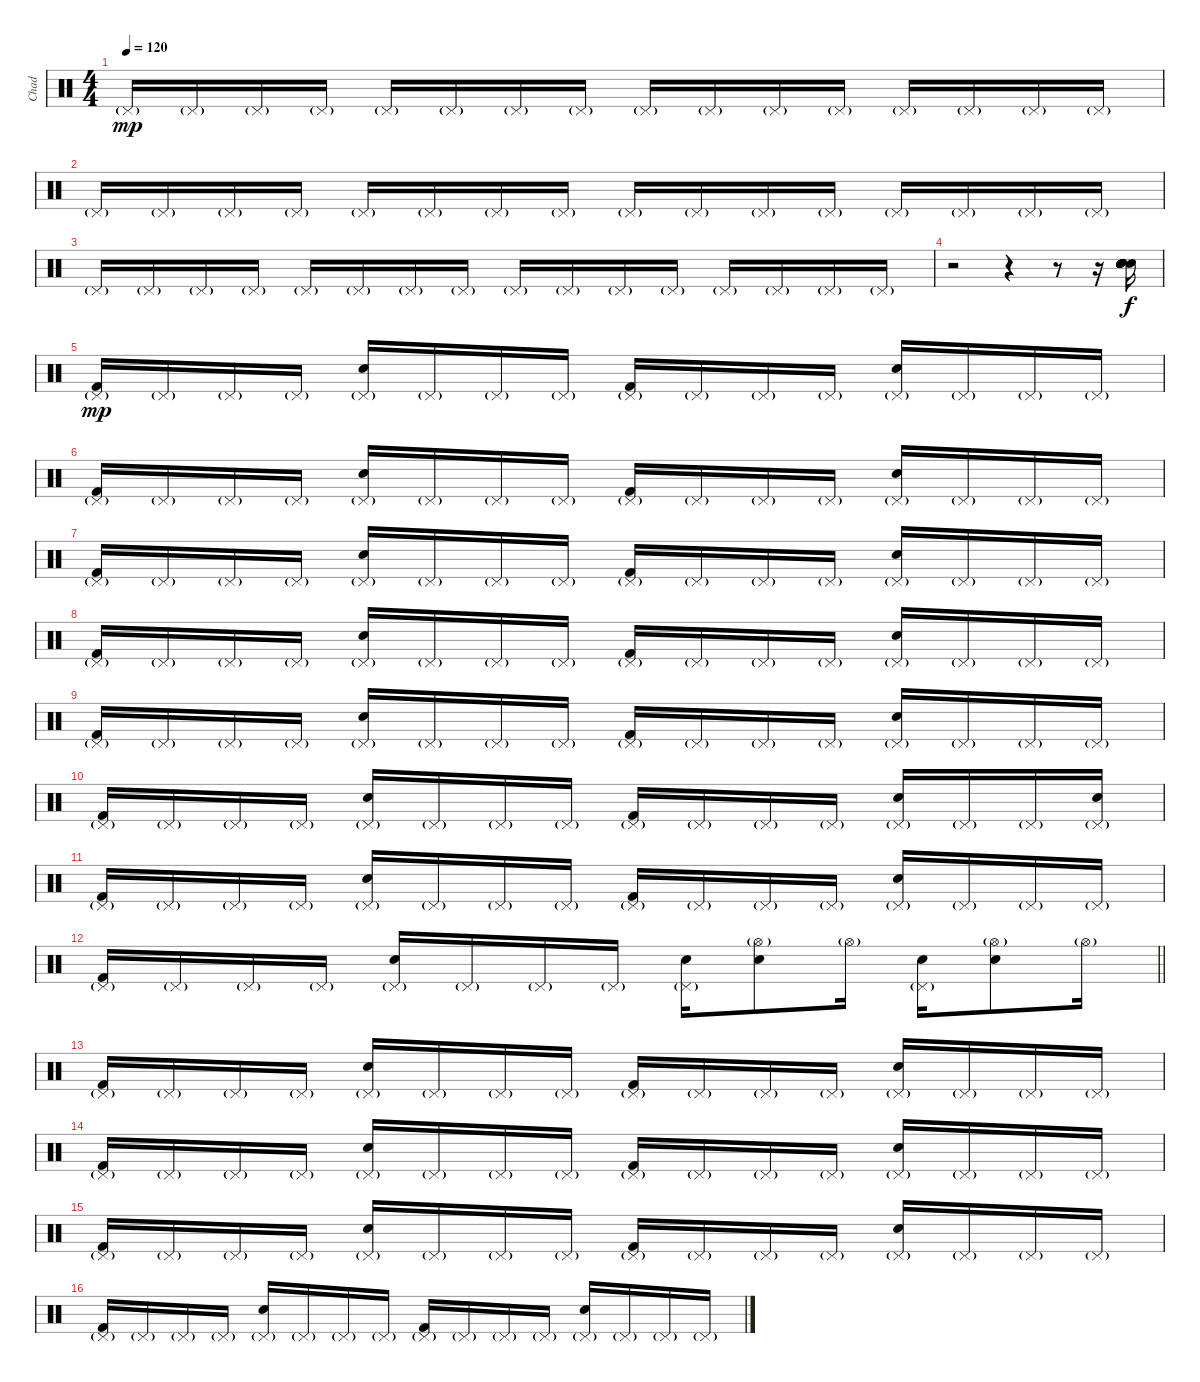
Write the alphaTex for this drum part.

\track ("Chad" "Chad") {instrument percussion}
\staff {score}
\articulation defaults
\ts (4 4)
\tempo 120
\clef neutral
\ks c "Pedal Hi-Hat (hit)"{g}.16{dy mp} "Pedal Hi-Hat (hit)"{g}.16 "Pedal Hi-Hat (hit)"{g}.16 "Pedal Hi-Hat (hit)"{g}.16 "Pedal Hi-Hat (hit)"{g}.16 "Pedal Hi-Hat (hit)"{g}.16 "Pedal Hi-Hat (hit)"{g}.16 "Pedal Hi-Hat (hit)"{g}.16 "Pedal Hi-Hat (hit)"{g}.16 "Pedal Hi-Hat (hit)"{g}.16 "Pedal Hi-Hat (hit)"{g}.16 "Pedal Hi-Hat (hit)"{g}.16 "Pedal Hi-Hat (hit)"{g}.16 "Pedal Hi-Hat (hit)"{g}.16 "Pedal Hi-Hat (hit)"{g}.16 "Pedal Hi-Hat (hit)"{g}.16
|
"Pedal Hi-Hat (hit)"{g}.16 "Pedal Hi-Hat (hit)"{g}.16 "Pedal Hi-Hat (hit)"{g}.16 "Pedal Hi-Hat (hit)"{g}.16 "Pedal Hi-Hat (hit)"{g}.16 "Pedal Hi-Hat (hit)"{g}.16 "Pedal Hi-Hat (hit)"{g}.16 "Pedal Hi-Hat (hit)"{g}.16 "Pedal Hi-Hat (hit)"{g}.16 "Pedal Hi-Hat (hit)"{g}.16 "Pedal Hi-Hat (hit)"{g}.16 "Pedal Hi-Hat (hit)"{g}.16 "Pedal Hi-Hat (hit)"{g}.16 "Pedal Hi-Hat (hit)"{g}.16 "Pedal Hi-Hat (hit)"{g}.16 "Pedal Hi-Hat (hit)"{g}.16 |
"Pedal Hi-Hat (hit)"{g}.16 "Pedal Hi-Hat (hit)"{g}.16 "Pedal Hi-Hat (hit)"{g}.16 "Pedal Hi-Hat (hit)"{g}.16 "Pedal Hi-Hat (hit)"{g}.16 "Pedal Hi-Hat (hit)"{g}.16 "Pedal Hi-Hat (hit)"{g}.16 "Pedal Hi-Hat (hit)"{g}.16 "Pedal Hi-Hat (hit)"{g}.16 "Pedal Hi-Hat (hit)"{g}.16 "Pedal Hi-Hat (hit)"{g}.16 "Pedal Hi-Hat (hit)"{g}.16 "Pedal Hi-Hat (hit)"{g}.16 "Pedal Hi-Hat (hit)"{g}.16 "Pedal Hi-Hat (hit)"{g}.16 "Pedal Hi-Hat (hit)"{g}.16 |
r.2 r.4 r.8 r.16 ("Snare (hit) 2" "Electric Snare (hit)" "Snare (hit) 2" "Electric Snare (hit)" "Snare (hit) 2" "Electric Snare (hit)").16{dy f} |
("Kick (hit) 2" "Pedal Hi-Hat (hit)"{g}).16{dy mp} "Pedal Hi-Hat (hit)"{g}.16 "Pedal Hi-Hat (hit)"{g}.16 "Pedal Hi-Hat (hit)"{g}.16 ("Electric Snare (hit)" "Pedal Hi-Hat (hit)"{g}).16 "Pedal Hi-Hat (hit)"{g}.16 "Pedal Hi-Hat (hit)"{g}.16 "Pedal Hi-Hat (hit)"{g}.16 ("Kick (hit) 2" "Pedal Hi-Hat (hit)"{g}).16 "Pedal Hi-Hat (hit)"{g}.16 "Pedal Hi-Hat (hit)"{g}.16 "Pedal Hi-Hat (hit)"{g}.16 ("Electric Snare (hit)" "Pedal Hi-Hat (hit)"{g}).16 "Pedal Hi-Hat (hit)"{g}.16 "Pedal Hi-Hat (hit)"{g}.16 "Pedal Hi-Hat (hit)"{g}.16 |
("Kick (hit) 2" "Pedal Hi-Hat (hit)"{g}).16 "Pedal Hi-Hat (hit)"{g}.16 "Pedal Hi-Hat (hit)"{g}.16 "Pedal Hi-Hat (hit)"{g}.16 ("Electric Snare (hit)" "Pedal Hi-Hat (hit)"{g}).16 "Pedal Hi-Hat (hit)"{g}.16 "Pedal Hi-Hat (hit)"{g}.16 "Pedal Hi-Hat (hit)"{g}.16 ("Kick (hit) 2" "Pedal Hi-Hat (hit)"{g}).16 "Pedal Hi-Hat (hit)"{g}.16 "Pedal Hi-Hat (hit)"{g}.16 "Pedal Hi-Hat (hit)"{g}.16 ("Electric Snare (hit)" "Pedal Hi-Hat (hit)"{g}).16 "Pedal Hi-Hat (hit)"{g}.16 "Pedal Hi-Hat (hit)"{g}.16 "Pedal Hi-Hat (hit)"{g}.16 |
("Kick (hit) 2" "Pedal Hi-Hat (hit)"{g}).16 "Pedal Hi-Hat (hit)"{g}.16 "Pedal Hi-Hat (hit)"{g}.16 "Pedal Hi-Hat (hit)"{g}.16 ("Electric Snare (hit)" "Pedal Hi-Hat (hit)"{g}).16 "Pedal Hi-Hat (hit)"{g}.16 "Pedal Hi-Hat (hit)"{g}.16 "Pedal Hi-Hat (hit)"{g}.16 ("Kick (hit) 2" "Pedal Hi-Hat (hit)"{g}).16 "Pedal Hi-Hat (hit)"{g}.16 "Pedal Hi-Hat (hit)"{g}.16 "Pedal Hi-Hat (hit)"{g}.16 ("Electric Snare (hit)" "Pedal Hi-Hat (hit)"{g}).16 "Pedal Hi-Hat (hit)"{g}.16 "Pedal Hi-Hat (hit)"{g}.16 "Pedal Hi-Hat (hit)"{g}.16 |
("Kick (hit) 2" "Pedal Hi-Hat (hit)"{g}).16 "Pedal Hi-Hat (hit)"{g}.16 "Pedal Hi-Hat (hit)"{g}.16 "Pedal Hi-Hat (hit)"{g}.16 ("Electric Snare (hit)" "Pedal Hi-Hat (hit)"{g}).16 "Pedal Hi-Hat (hit)"{g}.16 "Pedal Hi-Hat (hit)"{g}.16 "Pedal Hi-Hat (hit)"{g}.16 ("Kick (hit) 2" "Pedal Hi-Hat (hit)"{g}).16 "Pedal Hi-Hat (hit)"{g}.16 "Pedal Hi-Hat (hit)"{g}.16 "Pedal Hi-Hat (hit)"{g}.16 ("Electric Snare (hit)" "Pedal Hi-Hat (hit)"{g}).16 "Pedal Hi-Hat (hit)"{g}.16 "Pedal Hi-Hat (hit)"{g}.16 "Pedal Hi-Hat (hit)"{g}.16 |
("Kick (hit) 2" "Pedal Hi-Hat (hit)"{g}).16 "Pedal Hi-Hat (hit)"{g}.16 "Pedal Hi-Hat (hit)"{g}.16 "Pedal Hi-Hat (hit)"{g}.16 ("Electric Snare (hit)" "Pedal Hi-Hat (hit)"{g}).16 "Pedal Hi-Hat (hit)"{g}.16 "Pedal Hi-Hat (hit)"{g}.16 "Pedal Hi-Hat (hit)"{g}.16 ("Kick (hit) 2" "Pedal Hi-Hat (hit)"{g}).16 "Pedal Hi-Hat (hit)"{g}.16 "Pedal Hi-Hat (hit)"{g}.16 "Pedal Hi-Hat (hit)"{g}.16 ("Electric Snare (hit)" "Pedal Hi-Hat (hit)"{g}).16 "Pedal Hi-Hat (hit)"{g}.16 "Pedal Hi-Hat (hit)"{g}.16 "Pedal Hi-Hat (hit)"{g}.16 |
("Kick (hit) 2" "Pedal Hi-Hat (hit)"{g}).16 "Pedal Hi-Hat (hit)"{g}.16 "Pedal Hi-Hat (hit)"{g}.16 "Pedal Hi-Hat (hit)"{g}.16 ("Electric Snare (hit)" "Pedal Hi-Hat (hit)"{g}).16 "Pedal Hi-Hat (hit)"{g}.16 "Pedal Hi-Hat (hit)"{g}.16 "Pedal Hi-Hat (hit)"{g}.16 ("Kick (hit) 2" "Pedal Hi-Hat (hit)"{g}).16 "Pedal Hi-Hat (hit)"{g}.16 "Pedal Hi-Hat (hit)"{g}.16 "Pedal Hi-Hat (hit)"{g}.16 ("Electric Snare (hit)" "Pedal Hi-Hat (hit)"{g}).16 "Pedal Hi-Hat (hit)"{g}.16 "Pedal Hi-Hat (hit)"{g}.16 ("Electric Snare (hit)" "Pedal Hi-Hat (hit)"{g}).16 |
("Kick (hit) 2" "Pedal Hi-Hat (hit)"{g}).16 "Pedal Hi-Hat (hit)"{g}.16 "Pedal Hi-Hat (hit)"{g}.16 "Pedal Hi-Hat (hit)"{g}.16 ("Electric Snare (hit)" "Pedal Hi-Hat (hit)"{g}).16 "Pedal Hi-Hat (hit)"{g}.16 "Pedal Hi-Hat (hit)"{g}.16 "Pedal Hi-Hat (hit)"{g}.16 ("Kick (hit) 2" "Pedal Hi-Hat (hit)"{g}).16 "Pedal Hi-Hat (hit)"{g}.16 "Pedal Hi-Hat (hit)"{g}.16 "Pedal Hi-Hat (hit)"{g}.16 ("Electric Snare (hit)" "Pedal Hi-Hat (hit)"{g}).16 "Pedal Hi-Hat (hit)"{g}.16 "Pedal Hi-Hat (hit)"{g}.16 "Pedal Hi-Hat (hit)"{g}.16 |
\barLineRight lightlight
("Kick (hit) 2" "Pedal Hi-Hat (hit)"{g}).16 "Pedal Hi-Hat (hit)"{g}.16 "Pedal Hi-Hat (hit)"{g}.16 "Pedal Hi-Hat (hit)"{g}.16 ("Electric Snare (hit)" "Pedal Hi-Hat (hit)"{g}).16 "Pedal Hi-Hat (hit)"{g}.16 "Pedal Hi-Hat (hit)"{g}.16 "Pedal Hi-Hat (hit)"{g}.16 ("Electric Snare (hit)" "Pedal Hi-Hat (hit)"{g}).16 ("Electric Snare (hit)" "Hi-Hat (open)"{g}).8 "Hi-Hat (open)"{g}.16 ("Electric Snare (hit)" "Pedal Hi-Hat (hit)"{g}).16 ("Electric Snare (hit)" "Hi-Hat (open)"{g}).8 "Hi-Hat (open)"{g}.16 |
("Kick (hit) 2" "Pedal Hi-Hat (hit)"{g}).16 "Pedal Hi-Hat (hit)"{g}.16 "Pedal Hi-Hat (hit)"{g}.16 "Pedal Hi-Hat (hit)"{g}.16 ("Electric Snare (hit)" "Pedal Hi-Hat (hit)"{g}).16 "Pedal Hi-Hat (hit)"{g}.16 "Pedal Hi-Hat (hit)"{g}.16 "Pedal Hi-Hat (hit)"{g}.16 ("Kick (hit) 2" "Pedal Hi-Hat (hit)"{g}).16 "Pedal Hi-Hat (hit)"{g}.16 "Pedal Hi-Hat (hit)"{g}.16 "Pedal Hi-Hat (hit)"{g}.16 ("Electric Snare (hit)" "Pedal Hi-Hat (hit)"{g}).16 "Pedal Hi-Hat (hit)"{g}.16 "Pedal Hi-Hat (hit)"{g}.16 "Pedal Hi-Hat (hit)"{g}.16 |
("Kick (hit) 2" "Pedal Hi-Hat (hit)"{g}).16 "Pedal Hi-Hat (hit)"{g}.16 "Pedal Hi-Hat (hit)"{g}.16 "Pedal Hi-Hat (hit)"{g}.16 ("Electric Snare (hit)" "Pedal Hi-Hat (hit)"{g}).16 "Pedal Hi-Hat (hit)"{g}.16 "Pedal Hi-Hat (hit)"{g}.16 "Pedal Hi-Hat (hit)"{g}.16 ("Kick (hit) 2" "Pedal Hi-Hat (hit)"{g}).16 "Pedal Hi-Hat (hit)"{g}.16 "Pedal Hi-Hat (hit)"{g}.16 "Pedal Hi-Hat (hit)"{g}.16 ("Electric Snare (hit)" "Pedal Hi-Hat (hit)"{g}).16 "Pedal Hi-Hat (hit)"{g}.16 "Pedal Hi-Hat (hit)"{g}.16 "Pedal Hi-Hat (hit)"{g}.16 |
("Kick (hit) 2" "Pedal Hi-Hat (hit)"{g}).16 "Pedal Hi-Hat (hit)"{g}.16 "Pedal Hi-Hat (hit)"{g}.16 "Pedal Hi-Hat (hit)"{g}.16 ("Electric Snare (hit)" "Pedal Hi-Hat (hit)"{g}).16 "Pedal Hi-Hat (hit)"{g}.16 "Pedal Hi-Hat (hit)"{g}.16 "Pedal Hi-Hat (hit)"{g}.16 ("Kick (hit) 2" "Pedal Hi-Hat (hit)"{g}).16 "Pedal Hi-Hat (hit)"{g}.16 "Pedal Hi-Hat (hit)"{g}.16 "Pedal Hi-Hat (hit)"{g}.16 ("Electric Snare (hit)" "Pedal Hi-Hat (hit)"{g}).16 "Pedal Hi-Hat (hit)"{g}.16 "Pedal Hi-Hat (hit)"{g}.16 "Pedal Hi-Hat (hit)"{g}.16 |
("Kick (hit) 2" "Pedal Hi-Hat (hit)"{g}).16 "Pedal Hi-Hat (hit)"{g}.16 "Pedal Hi-Hat (hit)"{g}.16 "Pedal Hi-Hat (hit)"{g}.16 ("Electric Snare (hit)" "Pedal Hi-Hat (hit)"{g}).16 "Pedal Hi-Hat (hit)"{g}.16 "Pedal Hi-Hat (hit)"{g}.16 "Pedal Hi-Hat (hit)"{g}.16 ("Kick (hit) 2" "Pedal Hi-Hat (hit)"{g}).16 "Pedal Hi-Hat (hit)"{g}.16 "Pedal Hi-Hat (hit)"{g}.16 "Pedal Hi-Hat (hit)"{g}.16 ("Electric Snare (hit)" "Pedal Hi-Hat (hit)"{g}).16 "Pedal Hi-Hat (hit)"{g}.16 "Pedal Hi-Hat (hit)"{g}.16 "Pedal Hi-Hat (hit)"{g}.16
